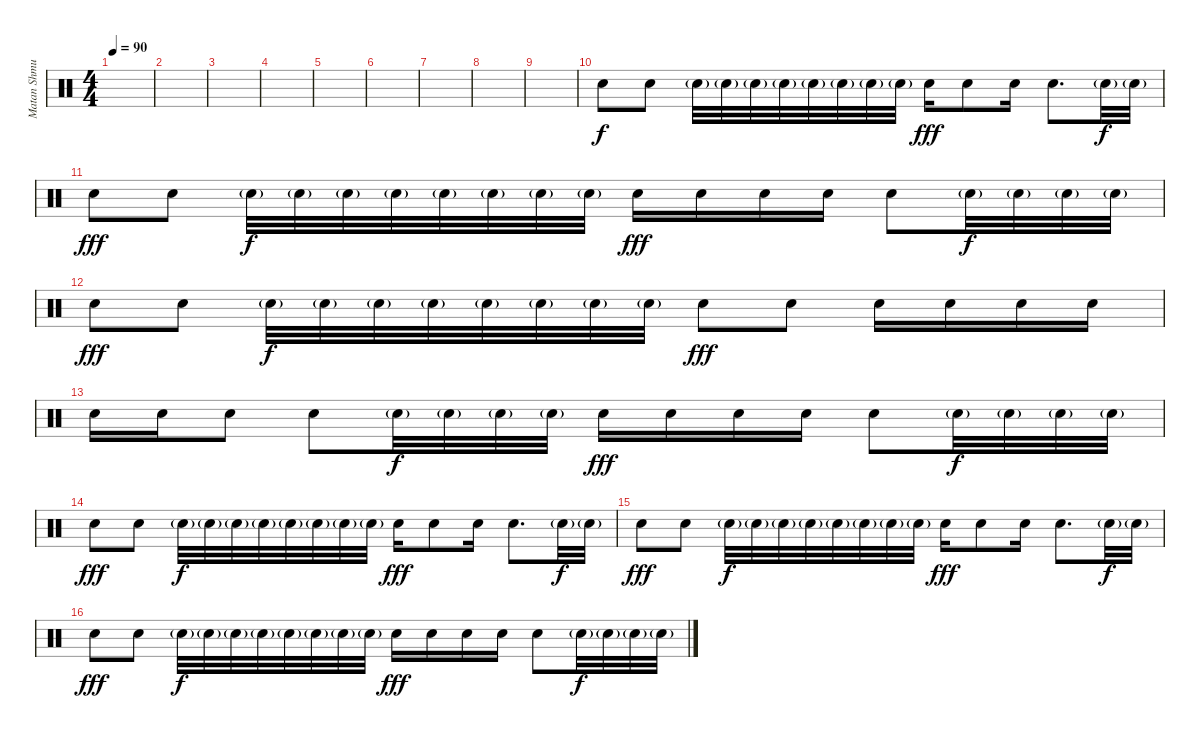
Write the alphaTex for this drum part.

\track ("Matan Shmuely " "Matan Shmu") {instrument percussion}
\staff {score}
\articulation defaults
\ts (4 4)
\tempo 90
\clef neutral
\ks c
|
|
|
|
|
|
|
|
|
"Electric Snare (hit)".8 "Electric Snare (hit)".8 "Electric Snare (hit)"{g}.32{dy f} "Electric Snare (hit)"{g}.32 "Electric Snare (hit)"{g}.32 "Electric Snare (hit)"{g}.32 "Electric Snare (hit)"{g}.32 "Electric Snare (hit)"{g}.32 "Electric Snare (hit)"{g}.32 "Electric Snare (hit)"{g}.32 "Electric Snare (hit)".16{dy fff} "Electric Snare (hit)".8 "Electric Snare (hit)".16 "Electric Snare (hit)".8{d} "Electric Snare (hit)"{g}.32{dy f} "Electric Snare (hit)"{g}.32 |
"Electric Snare (hit)".8{dy fff} "Electric Snare (hit)".8 "Electric Snare (hit)"{g}.32{dy f} "Electric Snare (hit)"{g}.32 "Electric Snare (hit)"{g}.32 "Electric Snare (hit)"{g}.32 "Electric Snare (hit)"{g}.32 "Electric Snare (hit)"{g}.32 "Electric Snare (hit)"{g}.32 "Electric Snare (hit)"{g}.32 "Electric Snare (hit)".16{dy fff} "Electric Snare (hit)".16 "Electric Snare (hit)".16 "Electric Snare (hit)".16 "Electric Snare (hit)".8 "Electric Snare (hit)"{g}.32{dy f} "Electric Snare (hit)"{g}.32 "Electric Snare (hit)"{g}.32 "Electric Snare (hit)"{g}.32 |
"Electric Snare (hit)".8{dy fff} "Electric Snare (hit)".8 "Electric Snare (hit)"{g}.32{dy f} "Electric Snare (hit)"{g}.32 "Electric Snare (hit)"{g}.32 "Electric Snare (hit)"{g}.32 "Electric Snare (hit)"{g}.32 "Electric Snare (hit)"{g}.32 "Electric Snare (hit)"{g}.32 "Electric Snare (hit)"{g}.32 "Electric Snare (hit)".8{dy fff} "Electric Snare (hit)".8 "Electric Snare (hit)".16 "Electric Snare (hit)".16 "Electric Snare (hit)".16 "Electric Snare (hit)".16 |
"Electric Snare (hit)".16 "Electric Snare (hit)".16 "Electric Snare (hit)".8 "Electric Snare (hit)".8 "Electric Snare (hit)"{g}.32{dy f} "Electric Snare (hit)"{g}.32 "Electric Snare (hit)"{g}.32 "Electric Snare (hit)"{g}.32 "Electric Snare (hit)".16{dy fff} "Electric Snare (hit)".16 "Electric Snare (hit)".16 "Electric Snare (hit)".16 "Electric Snare (hit)".8 "Electric Snare (hit)"{g}.32{dy f} "Electric Snare (hit)"{g}.32 "Electric Snare (hit)"{g}.32 "Electric Snare (hit)"{g}.32 |
"Electric Snare (hit)".8{dy fff} "Electric Snare (hit)".8 "Electric Snare (hit)"{g}.32{dy f} "Electric Snare (hit)"{g}.32 "Electric Snare (hit)"{g}.32 "Electric Snare (hit)"{g}.32 "Electric Snare (hit)"{g}.32 "Electric Snare (hit)"{g}.32 "Electric Snare (hit)"{g}.32 "Electric Snare (hit)"{g}.32 "Electric Snare (hit)".16{dy fff} "Electric Snare (hit)".8 "Electric Snare (hit)".16 "Electric Snare (hit)".8{d} "Electric Snare (hit)"{g}.32{dy f} "Electric Snare (hit)"{g}.32 |
"Electric Snare (hit)".8{dy fff} "Electric Snare (hit)".8 "Electric Snare (hit)"{g}.32{dy f} "Electric Snare (hit)"{g}.32 "Electric Snare (hit)"{g}.32 "Electric Snare (hit)"{g}.32 "Electric Snare (hit)"{g}.32 "Electric Snare (hit)"{g}.32 "Electric Snare (hit)"{g}.32 "Electric Snare (hit)"{g}.32 "Electric Snare (hit)".16{dy fff} "Electric Snare (hit)".8 "Electric Snare (hit)".16 "Electric Snare (hit)".8{d} "Electric Snare (hit)"{g}.32{dy f} "Electric Snare (hit)"{g}.32 |
"Electric Snare (hit)".8{dy fff} "Electric Snare (hit)".8 "Electric Snare (hit)"{g}.32{dy f} "Electric Snare (hit)"{g}.32 "Electric Snare (hit)"{g}.32 "Electric Snare (hit)"{g}.32 "Electric Snare (hit)"{g}.32 "Electric Snare (hit)"{g}.32 "Electric Snare (hit)"{g}.32 "Electric Snare (hit)"{g}.32 "Electric Snare (hit)".16{dy fff} "Electric Snare (hit)".16 "Electric Snare (hit)".16 "Electric Snare (hit)".16 "Electric Snare (hit)".8 "Electric Snare (hit)"{g}.32{dy f} "Electric Snare (hit)"{g}.32 "Electric Snare (hit)"{g}.32 "Electric Snare (hit)"{g}.32
